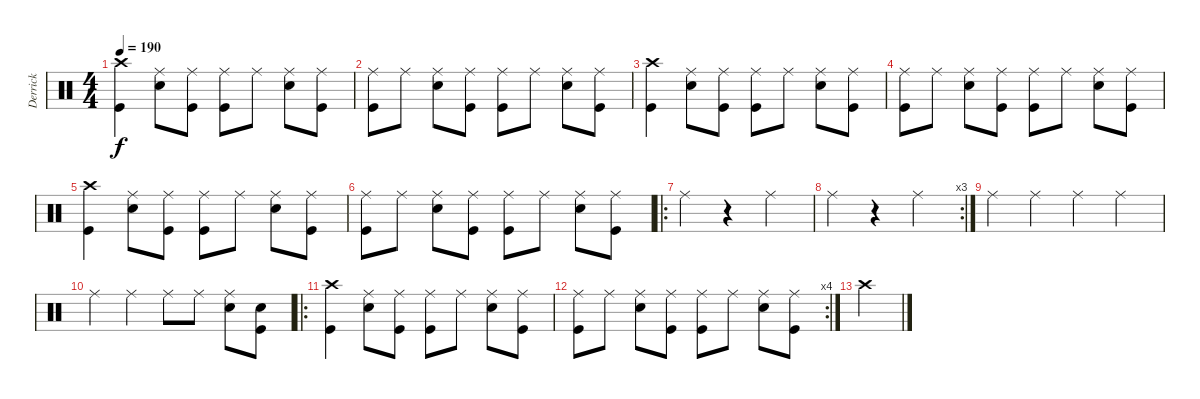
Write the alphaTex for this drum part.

\track ("Derrick" "Derrick") {instrument percussion}
\staff {score}
\articulation defaults
\ts (4 4)
\tempo 190
\clef neutral
\ks c
("Crash high (hit)" "Kick (hit)").4{dy f} ("Ride (middle)" "Snare (hit) 2").8 ("Ride (middle)" "Kick (hit)").8 ("Ride (middle)" "Kick (hit)").8 "Ride (middle)".8 ("Ride (middle)" "Snare (hit) 2").8 ("Ride (middle)" "Kick (hit)").8 |
("Ride (middle)" "Kick (hit)").8 "Ride (middle)".8 ("Ride (middle)" "Snare (hit) 2").8 ("Ride (middle)" "Kick (hit)").8 ("Ride (middle)" "Kick (hit)").8 "Ride (middle)".8 ("Ride (middle)" "Snare (hit) 2").8 ("Ride (middle)" "Kick (hit)").8 |
("Crash high (hit)" "Kick (hit)").4 ("Ride (middle)" "Snare (hit) 2").8 ("Ride (middle)" "Kick (hit)").8 ("Ride (middle)" "Kick (hit)").8 "Ride (middle)".8 ("Ride (middle)" "Snare (hit) 2").8 ("Ride (middle)" "Kick (hit)").8 |
("Ride (middle)" "Kick (hit)").8 "Ride (middle)".8 ("Ride (middle)" "Snare (hit) 2").8 ("Ride (middle)" "Kick (hit)").8 ("Ride (middle)" "Kick (hit)").8 "Ride (middle)".8 ("Ride (middle)" "Snare (hit) 2").8 ("Ride (middle)" "Kick (hit)").8 |
("Crash high (hit)" "Kick (hit)").4 ("Ride (middle)" "Snare (hit) 2").8 ("Ride (middle)" "Kick (hit)").8 ("Ride (middle)" "Kick (hit)").8 "Ride (middle)".8 ("Ride (middle)" "Snare (hit) 2").8 ("Ride (middle)" "Kick (hit)").8 |
("Ride (middle)" "Kick (hit)").8 "Ride (middle)".8 ("Ride (middle)" "Snare (hit) 2").8 ("Ride (middle)" "Kick (hit)").8 ("Ride (middle)" "Kick (hit)").8 "Ride (middle)".8 ("Ride (middle)" "Snare (hit) 2").8 ("Ride (middle)" "Kick (hit)").8 |
\ro "Ride (middle)".4
r.4 "Ride (middle)".4 |
\rc 3 "Ride (middle)".4
r.4 "Ride (middle)".4 |
"Ride (middle)".4 "Ride (middle)".4 "Ride (middle)".4 "Ride (middle)".4 |
"Ride (middle)".4 "Ride (middle)".4 "Ride (middle)".8 "Ride (middle)".8 ("Ride (middle)" "Snare (hit) 2").8 ("Snare (hit) 2" "Kick (hit)").8 |
\ro
("Crash high (hit)" "Kick (hit)").4 ("Ride (middle)" "Snare (hit) 2").8 ("Ride (middle)" "Kick (hit)").8 ("Ride (middle)" "Kick (hit)").8 "Ride (middle)".8 ("Ride (middle)" "Snare (hit) 2").8 ("Ride (middle)" "Kick (hit)").8 |
\rc 4
("Ride (middle)" "Kick (hit)").8 "Ride (middle)".8 ("Ride (middle)" "Snare (hit) 2").8 ("Ride (middle)" "Kick (hit)").8 ("Ride (middle)" "Kick (hit)").8 "Ride (middle)".8 ("Ride (middle)" "Snare (hit) 2").8 ("Ride (middle)" "Kick (hit)").8 |
"Crash high (hit)".4
